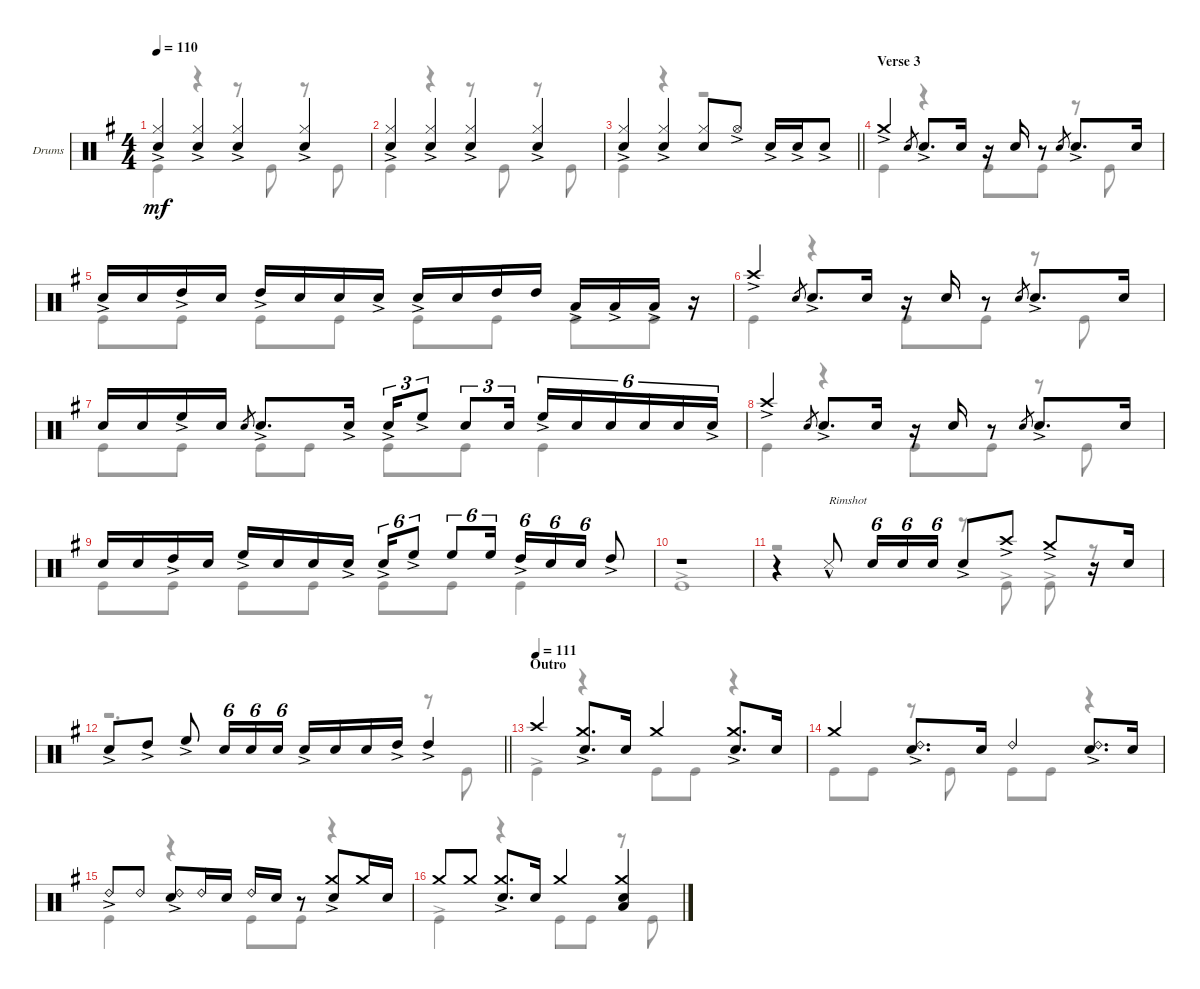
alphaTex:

\bracketExtendMode groupsimilarinstruments
\firstSystemTrackNameOrientation horizontal
\otherSystemsTrackNameOrientation horizontal
\track ("Drumkit" "Drums") {instrument percussion}
\staff {score}
\articulation defaults
\voice
\ts (4 4)
\tempo 110
\clef neutral
\ks g
("Hi-Hat (closed)"{ac} "Snare (hit) 2").4{dy mf} ("Hi-Hat (closed)"{ac} "Snare (hit) 2").4 ("Hi-Hat (closed)"{ac} "Snare (hit) 2").4 ("Hi-Hat (closed)"{ac} "Snare (hit) 2").4 |
("Hi-Hat (closed)"{ac} "Snare (hit) 2").4 ("Hi-Hat (closed)"{ac} "Snare (hit) 2").4 ("Hi-Hat (closed)"{ac} "Snare (hit) 2").4 ("Hi-Hat (closed)"{ac} "Snare (hit) 2").4 |
\barLineRight lightlight
("Hi-Hat (closed)"{ac} "Snare (hit) 2").4 ("Hi-Hat (closed)"{ac} "Snare (hit) 2").4 ("Hi-Hat (closed)" "Snare (hit) 2").8 "Hi-Hat (open)"{ac}.8 "Snare (hit) 2"{ac}.16 "Snare (hit) 2"{ac}.16 "Snare (hit) 2"{ac}.8 |
\section ("" "Verse 3")
"Crash medium (hit)"{ac}.4 "Snare (hit) 2".8{gr} "Snare (hit) 2"{ac}.8{d} "Snare (hit) 2".16 r.16 "Snare (hit) 2".16 r.8 "Snare (hit) 2".8{gr} "Snare (hit) 2"{ac}.8{d} "Snare (hit) 2".16 |
"Snare (hit) 2"{ac}.16 "Snare (hit) 2".16 "High Tom (hit)"{ac}.16 "Snare (hit) 2".16 "High Tom (hit)"{ac}.16 "Snare (hit) 2".16 "Snare (hit) 2".16 "Snare (hit) 2"{ac}.16 "Snare (hit) 2"{ac}.16 "Snare (hit) 2".16 "High Tom (hit)".16 "High Tom (hit)".16 "Low Tom (hit)"{ac}.16 "Low Tom (hit)"{ac}.16 "Low Tom (hit)"{ac}.16 r.16 |
"Crash high (hit)"{ac}.4 "Snare (hit) 2".8{gr} "Snare (hit) 2"{ac}.8{d} "Snare (hit) 2".16 r.16 "Snare (hit) 2".16 r.8 "Snare (hit) 2".8{gr} "Snare (hit) 2"{ac}.8{d} "Snare (hit) 2".16 |
"Snare (hit) 2".16 "Snare (hit) 2".16 "High Floor Tom (hit)"{ac}.16 "Snare (hit) 2".16 "Snare (hit) 2".8{gr} "Snare (hit) 2"{ac}.8{d} "Snare (hit) 2"{ac}.16 "Snare (hit) 2"{ac}.16{tu (3 2)} "High Floor Tom (hit)"{ac}.8{tu (3 2)} "Snare (hit) 2".8{tu (3 2)} "Snare (hit) 2".16{tu (3 2)} "High Floor Tom (hit)"{ac}.16{tu (6 4)} "Snare (hit) 2".16{tu (6 4)} "Snare (hit) 2".16{tu (6 4)} "Snare (hit) 2".16{tu (6 4)} "Snare (hit) 2".16{tu (6 4)} "Snare (hit) 2"{ac}.16{tu (6 4)} |
"Crash high (hit)"{ac}.4 "Snare (hit) 2".8{gr} "Snare (hit) 2"{ac}.8{d} "Snare (hit) 2".16 r.16 "Snare (hit) 2".16 r.8 "Snare (hit) 2".8{gr} "Snare (hit) 2"{ac}.8{d} "Snare (hit) 2".16 |
"Snare (hit) 2".16 "Snare (hit) 2".16 "High Tom (hit)"{ac}.16 "Snare (hit) 2".16 "High Floor Tom (hit)"{ac}.16 "Snare (hit) 2".16 "Snare (hit) 2".16 "Snare (hit) 2"{ac}.16 "Snare (hit) 2"{ac}.16{tu (6 4)} "High Floor Tom (hit)"{ac}.8{tu (6 4)} "High Floor Tom (hit)".8{tu (6 4)} "High Floor Tom (hit)".16{tu (6 4)} "High Tom (hit)"{ac}.16{tu (6 4)} "Snare (hit) 2".16{tu (6 4)} "Snare (hit) 2".16{tu (6 4)} "High Tom (hit)"{ac}.8 |
r.1 |
r.4 "Snare (side stick) 3"{hac}.8{txt "Rimshot"} "Snare (hit) 2".16{tu (6 4)} "Snare (hit) 2".16{tu (6 4)} "Snare (hit) 2".16{tu (6 4)} "Snare (hit) 2"{ac}.8 "Crash high (hit)"{ac}.8 "Crash medium (hit)"{ac}.8 r.16 "Snare (hit) 2".16 |
\barLineRight lightlight "Snare (hit) 2"{ac}.8 "High Tom (hit)"{ac}.8 "High Floor Tom (hit)"{ac}.8 "Snare (hit) 2".16{tu (6 4)} "Snare (hit) 2".16{tu (6 4)} "Snare (hit) 2".16{tu (6 4)} "Snare (hit) 2"{ac}.16 "Snare (hit) 2".16 "Snare (hit) 2".16 "High Tom (hit)"{ac}.16 "High Tom (hit)"{ac}.4
|
\section ("" "Outro")
\tempo (111)
"Crash high (hit)".4 ("Crash medium (hit)" "Snare (hit) 2"{ac}).8{d} "Snare (hit) 2".16 "Crash medium (hit)".4 ("Crash medium (hit)" "Snare (hit) 2"{ac}).8{d} "Snare (hit) 2".16 |
"Crash medium (hit)".4 ("Ride (bell) 2" "Snare (hit) 2"{ac}).8{d} "Snare (hit) 2".16 "Ride (bell) 2".4 ("Ride (bell) 2" "Snare (hit) 2"{ac}).8{d} "Snare (hit) 2".16 |
"Ride (bell) 2"{ac}.8 "Ride (bell) 2".8 ("Ride (bell) 2" "Snare (hit) 2"{ac}).8 "Ride (bell) 2".16 "Snare (hit) 2".16 "Ride (bell) 2".16 "Snare (hit) 2".16 r.8 ("Crash medium (hit)" "Snare (hit) 2"{ac}).8 "Crash medium (hit)".16 "Snare (hit) 2".16 |
"Crash medium (hit)".8 "Crash medium (hit)".8 ("Crash medium (hit)" "Snare (hit) 2"{ac}).8{d} "Snare (hit) 2".16 "Crash medium (hit)".4 ("Crash medium (hit)" "Snare (hit) 2" "Low Tom (hit)").4
\voice
\clef neutral
\ottava regular
\simile none
\ks g "Kick (hit)".4{dy mf}
r.4 r.8 "Kick (hit)".8 r.8 "Kick (hit)".8 |
"Kick (hit)".4 r.4 r.8 "Kick (hit)".8 r.8 "Kick (hit)".8 |
\barLineRight lightlight "Kick (hit)".4
r.4 r.2 |
"Kick (hit)".4 r.4 "Kick (hit)".8 "Kick (hit)".8 r.8 "Kick (hit)".8 |
"Kick (hit)".8 "Kick (hit)".8 "Kick (hit)".8 "Kick (hit)".8 "Kick (hit)".8 "Kick (hit)".8 "Kick (hit)".8 "Kick (hit)".8 |
"Kick (hit)".4 r.4 "Kick (hit)".8 "Kick (hit)".8 r.8 "Kick (hit)".8 |
"Kick (hit)".8 "Kick (hit)".8 "Kick (hit)".8 "Kick (hit)".8 "Kick (hit)".8 "Kick (hit)".8 "Kick (hit)".4 |
"Kick (hit)".4 r.4 "Kick (hit)".8 "Kick (hit)".8 r.8 "Kick (hit)".8 |
"Kick (hit)".8 "Kick (hit)".8 "Kick (hit)".8 "Kick (hit)".8 "Kick (hit)".8 "Kick (hit)".8 "Kick (hit)".4 |
"Kick (hit)"{ac}.1 |
r.2 r.8 "Kick (hit)"{ac}.8 "Kick (hit)"{ac}.8 r.8 |
\barLineRight lightlight
r.2{d} r.8 "Kick (hit)".8 |
"Kick (hit)"{ac}.4 r.4 "Kick (hit)".8 "Kick (hit)".8 r.4 |
"Kick (hit)".8 "Kick (hit)".8 r.8 "Kick (hit)".8 "Kick (hit)".8 "Kick (hit)".8 r.4 |
"Kick (hit)".4 r.4 "Kick (hit)".8 "Kick (hit)".8 r.4 |
"Kick (hit)"{ac}.4 r.4 "Kick (hit)".8 "Kick (hit)".8 r.8 "Kick (hit)".8
